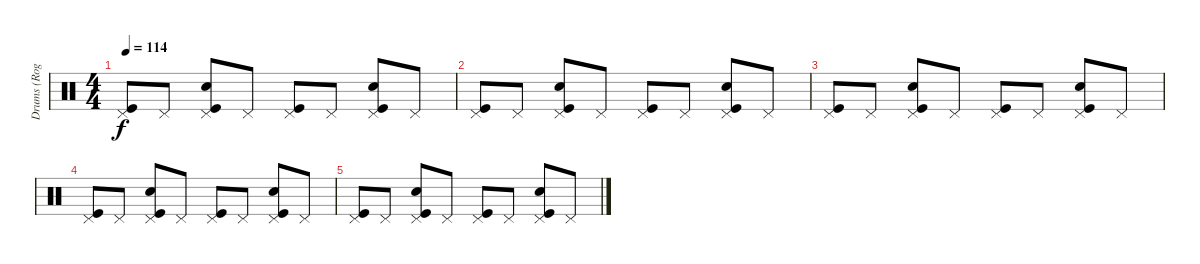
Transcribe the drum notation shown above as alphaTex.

\track ("Drums (Roger Earl)" "Drums (Rog") {solo instrument percussion}
\staff {score}
\articulation defaults
\ts (4 4)
\tempo 114
\clef neutral
\ks c
("Pedal Hi-Hat (hit)" "Kick (hit)").8{dy f} "Pedal Hi-Hat (hit)".8 ("Pedal Hi-Hat (hit)" "Snare (hit) 2" "Kick (hit)").8 "Pedal Hi-Hat (hit)".8 ("Pedal Hi-Hat (hit)" "Kick (hit)").8 "Pedal Hi-Hat (hit)".8 ("Pedal Hi-Hat (hit)" "Snare (hit) 2" "Kick (hit)").8 "Pedal Hi-Hat (hit)".8 |
("Pedal Hi-Hat (hit)" "Kick (hit)").8 "Pedal Hi-Hat (hit)".8 ("Pedal Hi-Hat (hit)" "Snare (hit) 2" "Kick (hit)").8 "Pedal Hi-Hat (hit)".8 ("Pedal Hi-Hat (hit)" "Kick (hit)").8 "Pedal Hi-Hat (hit)".8 ("Pedal Hi-Hat (hit)" "Snare (hit) 2" "Kick (hit)").8 "Pedal Hi-Hat (hit)".8 |
("Pedal Hi-Hat (hit)" "Kick (hit)").8 "Pedal Hi-Hat (hit)".8 ("Pedal Hi-Hat (hit)" "Snare (hit) 2" "Kick (hit)").8 "Pedal Hi-Hat (hit)".8 ("Pedal Hi-Hat (hit)" "Kick (hit)").8 "Pedal Hi-Hat (hit)".8 ("Pedal Hi-Hat (hit)" "Snare (hit) 2" "Kick (hit)").8 "Pedal Hi-Hat (hit)".8 |
("Pedal Hi-Hat (hit)" "Kick (hit)").8 "Pedal Hi-Hat (hit)".8 ("Pedal Hi-Hat (hit)" "Snare (hit) 2" "Kick (hit)").8 "Pedal Hi-Hat (hit)".8 ("Pedal Hi-Hat (hit)" "Kick (hit)").8 "Pedal Hi-Hat (hit)".8 ("Pedal Hi-Hat (hit)" "Snare (hit) 2" "Kick (hit)").8 "Pedal Hi-Hat (hit)".8 |
("Pedal Hi-Hat (hit)" "Kick (hit)").8 "Pedal Hi-Hat (hit)".8 ("Pedal Hi-Hat (hit)" "Snare (hit) 2" "Kick (hit)").8 "Pedal Hi-Hat (hit)".8 ("Pedal Hi-Hat (hit)" "Kick (hit)").8 "Pedal Hi-Hat (hit)".8 ("Pedal Hi-Hat (hit)" "Snare (hit) 2" "Kick (hit)").8 "Pedal Hi-Hat (hit)".8
